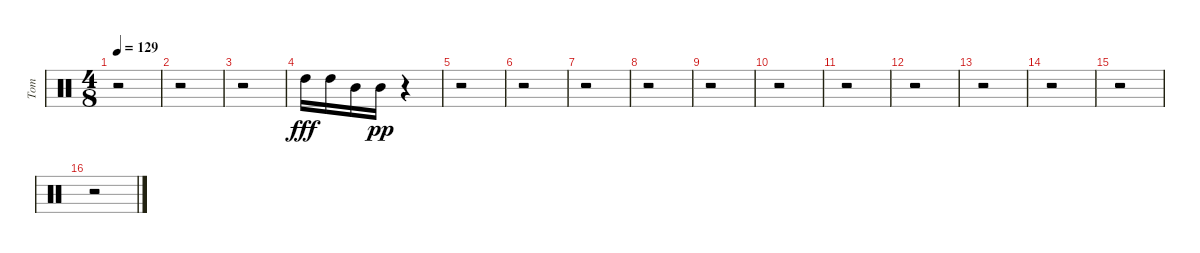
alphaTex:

\track ("Tom" "Tom") {instrument percussion}
\staff {score}
\articulation defaults
\ts (4 8)
\tempo 129
\clef neutral
\ks c
r.2{dy fff} |
r.2 |
r.2 |
"High Tom (hit)".16 "High Tom (hit)".16 "Mid Tom (hit)".16 "Mid Tom (hit)".16{dy pp} r.4 |
r.2 |
r.2 |
r.2 |
r.2 |
r.2 |
r.2 |
r.2 |
r.2 |
r.2 |
r.2 |
r.2 |
r.2
